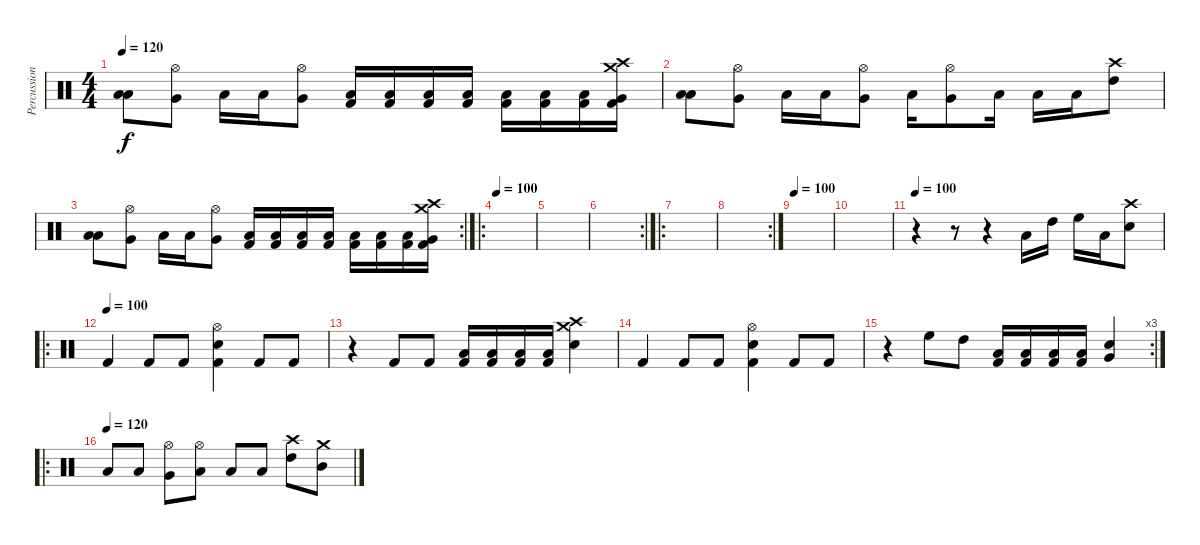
\track ("Percussion" "Percussion") {instrument percussion}
\staff {score}
\articulation defaults
\ts (4 4)
\tempo 120
\clef neutral
\ks c
("Low Floor Tom (hit)" "Low Floor Tom (hit)").8{dy f} ("Very Low Tom (hit)" "Hi-Hat (open)").8 "Low Floor Tom (hit)".16 "Low Floor Tom (hit)".16 ("Very Low Tom (hit)" "Hi-Hat (open)").8 ("Low Floor Tom (hit)" "Kick (hit) 2").16 ("Low Floor Tom (hit)" "Kick (hit) 2").16 ("Low Floor Tom (hit)" "Kick (hit) 2").16 ("Low Floor Tom (hit)" "Kick (hit) 2").16 ("Low Floor Tom (hit)" "Kick (hit) 2").16 ("Low Floor Tom (hit)" "Kick (hit) 2").16 ("Low Floor Tom (hit)" "Kick (hit) 2").16 ("Very Low Tom (hit)" "Kick (hit) 2" "Crash high (hit)" "Crash medium (hit)").16 |
("Low Floor Tom (hit)" "Low Floor Tom (hit)").8 ("Very Low Tom (hit)" "Hi-Hat (open)").8 "Low Floor Tom (hit)".16 "Low Floor Tom (hit)".16 ("Very Low Tom (hit)" "Hi-Hat (open)").8 "Low Floor Tom (hit)".16 ("Very Low Tom (hit)" "Hi-Hat (open)").8 "Low Floor Tom (hit)".16 "Low Floor Tom (hit)".16 "Low Floor Tom (hit)".16 ("Crash high (hit)" "High Tom (hit)").8 |
\rc 2
("Low Floor Tom (hit)" "Low Floor Tom (hit)").8 ("Very Low Tom (hit)" "Hi-Hat (open)").8 "Low Floor Tom (hit)".16 "Low Floor Tom (hit)".16 ("Very Low Tom (hit)" "Hi-Hat (open)").8 ("Low Floor Tom (hit)" "Kick (hit) 2").16 ("Low Floor Tom (hit)" "Kick (hit) 2").16 ("Low Floor Tom (hit)" "Kick (hit) 2").16 ("Low Floor Tom (hit)" "Kick (hit) 2").16 ("Low Floor Tom (hit)" "Kick (hit) 2").16 ("Low Floor Tom (hit)" "Kick (hit) 2").16 ("Low Floor Tom (hit)" "Kick (hit) 2").16 ("Very Low Tom (hit)" "Kick (hit) 2" "Crash high (hit)" "Crash medium (hit)").16 |
\ro
\tempo 100
|
|
\rc 2
|
\ro
|
\rc 2
|
\tempo 100
|
|
\tempo 100
r.4 r.8 r.4 "Low Tom (hit)".16 "High Tom (hit)".16 "High Floor Tom (hit)".16 "Low Tom (hit)".16 ("Crash high (hit)" "Electric Snare (hit)").8 |
\ro
\tempo (100)
"Kick (hit) 2".4 "Kick (hit) 2".8 "Kick (hit) 2".8 ("Hi-Hat (open)" "Snare (hit) 2" "Kick (hit) 2").4 "Kick (hit) 2".8 "Kick (hit) 2".8 |
r.4 "Kick (hit) 2".8 "Kick (hit) 2".8 ("Low Tom (hit)" "Kick (hit) 2").16 ("Low Tom (hit)" "Kick (hit) 2").16 ("Low Tom (hit)" "Kick (hit) 2").16 ("Low Tom (hit)" "Kick (hit) 2").16 ("Crash high (hit)" "Crash medium (hit)" "Electric Snare (hit)").4 |
"Kick (hit) 2".4 "Kick (hit) 2".8 "Kick (hit) 2".8 ("Hi-Hat (open)" "Snare (hit) 2" "Kick (hit) 2").4 "Kick (hit) 2".8 "Kick (hit) 2".8 |
\rc 3
r.4 "High Floor Tom (hit)".8 "High Tom (hit)".8 ("Low Tom (hit)" "Kick (hit) 2").16 ("Low Tom (hit)" "Kick (hit) 2").16 ("Low Tom (hit)" "Kick (hit) 2").16 ("Low Tom (hit)" "Kick (hit) 2").16 ("Very Low Tom (hit)" "Electric Snare (hit)").4 |
\ro
\tempo (120)
"Low Floor Tom (hit)".8 "Low Floor Tom (hit)".8 ("Very Low Tom (hit)" "Hi-Hat (open)").8 ("Low Tom (hit)" "Hi-Hat (open)").8 "Low Floor Tom (hit)".8 "Low Floor Tom (hit)".8 ("High Tom (hit)" "Crash high (hit)").8 ("Mid Tom (hit)" "Crash medium (hit)").8
